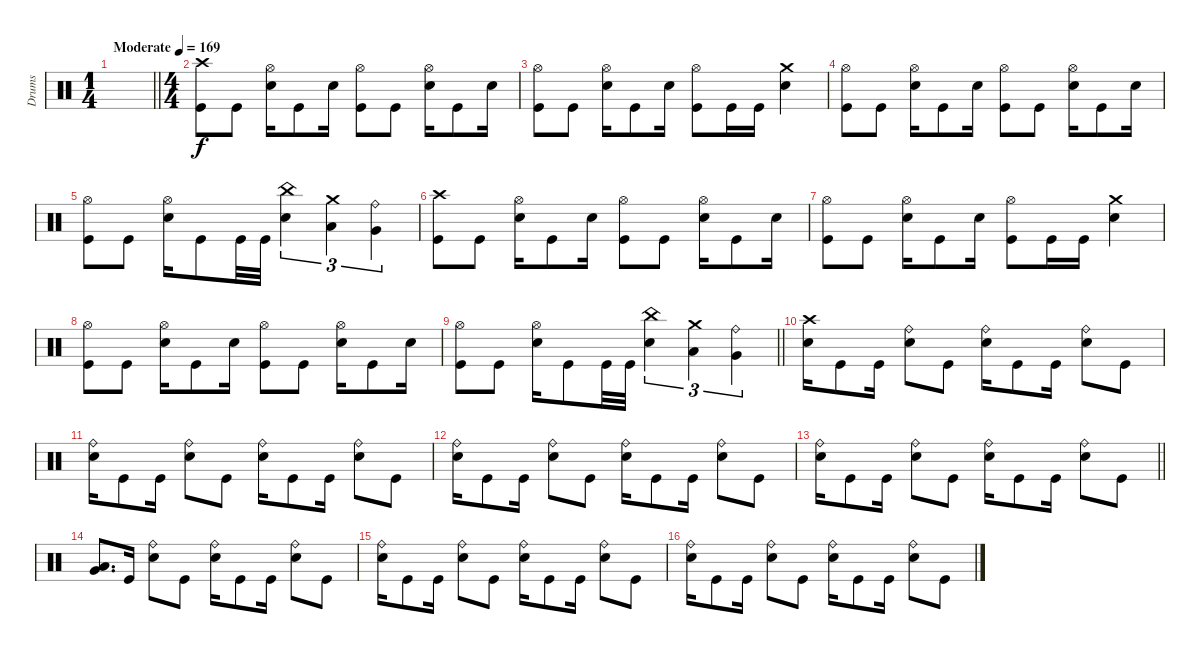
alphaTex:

\track ("Drums" "Drums") {instrument percussion}
\staff
\articulation defaults
\ts (1 4)
\tempo (169 "Moderate")
\clef neutral
\barLineRight lightlight
\ks c
|
\ts (4 4)
("Crash high (hit)" "Kick (hit)").8 "Kick (hit)".8 ("Hi-Hat (open)" "Electric Snare (hit)").16 "Kick (hit)".8 "Electric Snare (hit)".16 ("Hi-Hat (open)" "Kick (hit)").8 "Kick (hit)".8 ("Hi-Hat (open)" "Electric Snare (hit)").16 "Kick (hit)".8 "Electric Snare (hit)".16 |
("Hi-Hat (open)" "Kick (hit)").8 "Kick (hit)".8 ("Hi-Hat (open)" "Electric Snare (hit)").16 "Kick (hit)".8 "Electric Snare (hit)".16 ("Hi-Hat (open)" "Kick (hit)").8 "Kick (hit)".16 "Kick (hit)".16 ("Crash medium (hit)" "Electric Snare (hit)").4 |
("Hi-Hat (open)" "Kick (hit)").8 "Kick (hit)".8 ("Hi-Hat (open)" "Electric Snare (hit)").16 "Kick (hit)".8 "Electric Snare (hit)".16 ("Hi-Hat (open)" "Kick (hit)").8 "Kick (hit)".8 ("Hi-Hat (open)" "Electric Snare (hit)").16 "Kick (hit)".8 "Electric Snare (hit)".16 |
("Hi-Hat (open)" "Kick (hit)").8 "Kick (hit)".8 ("Hi-Hat (open)" "Electric Snare (hit)").16 "Kick (hit)".8 "Kick (hit)".32 "Kick (hit)".32 ("China (hit)" "Electric Snare (hit)").4{tu (3 2)} ("Crash medium (hit)" "Low Tom (hit)").4{tu (3 2)} ("Ride (bell)" "Very Low Tom (hit)").4{tu (3 2)} |
("Crash high (hit)" "Kick (hit)").8 "Kick (hit)".8 ("Hi-Hat (open)" "Electric Snare (hit)").16 "Kick (hit)".8 "Electric Snare (hit)".16 ("Hi-Hat (open)" "Kick (hit)").8 "Kick (hit)".8 ("Hi-Hat (open)" "Electric Snare (hit)").16 "Kick (hit)".8 "Electric Snare (hit)".16 |
("Hi-Hat (open)" "Kick (hit)").8 "Kick (hit)".8 ("Hi-Hat (open)" "Electric Snare (hit)").16 "Kick (hit)".8 "Electric Snare (hit)".16 ("Hi-Hat (open)" "Kick (hit)").8 "Kick (hit)".16 "Kick (hit)".16 ("Crash medium (hit)" "Electric Snare (hit)").4 |
("Hi-Hat (open)" "Kick (hit)").8 "Kick (hit)".8 ("Hi-Hat (open)" "Electric Snare (hit)").16 "Kick (hit)".8 "Electric Snare (hit)".16 ("Hi-Hat (open)" "Kick (hit)").8 "Kick (hit)".8 ("Hi-Hat (open)" "Electric Snare (hit)").16 "Kick (hit)".8 "Electric Snare (hit)".16 |
\barLineRight lightlight
("Hi-Hat (open)" "Kick (hit)").8 "Kick (hit)".8 ("Hi-Hat (open)" "Electric Snare (hit)").16 "Kick (hit)".8 "Kick (hit)".32 "Kick (hit)".32 ("China (hit)" "Electric Snare (hit)").4{tu (3 2)} ("Crash medium (hit)" "Low Tom (hit)").4{tu (3 2)} ("Ride (bell)" "Very Low Tom (hit)").4{tu (3 2)} |
("Crash high (hit)" "Electric Snare (hit)").16 "Kick (hit)".8 "Kick (hit)".16 ("Ride (bell)" "Electric Snare (hit)").8 "Kick (hit)".8 ("Ride (bell)" "Electric Snare (hit)").16 "Kick (hit)".8 "Kick (hit)".16 ("Ride (bell)" "Electric Snare (hit)").8 "Kick (hit)".8 |
("Ride (bell)" "Electric Snare (hit)").16 "Kick (hit)".8 "Kick (hit)".16 ("Ride (bell)" "Electric Snare (hit)").8 "Kick (hit)".8 ("Ride (bell)" "Electric Snare (hit)").16 "Kick (hit)".8 "Kick (hit)".16 ("Ride (bell)" "Electric Snare (hit)").8 "Kick (hit)".8 |
("Ride (bell)" "Electric Snare (hit)").16 "Kick (hit)".8 "Kick (hit)".16 ("Ride (bell)" "Electric Snare (hit)").8 "Kick (hit)".8 ("Ride (bell)" "Electric Snare (hit)").16 "Kick (hit)".8 "Kick (hit)".16 ("Ride (bell)" "Electric Snare (hit)").8 "Kick (hit)".8 |
\barLineRight lightlight
("Ride (bell)" "Electric Snare (hit)").16 "Kick (hit)".8 "Kick (hit)".16 ("Ride (bell)" "Electric Snare (hit)").8 "Kick (hit)".8 ("Ride (bell)" "Electric Snare (hit)").16 "Kick (hit)".8 "Kick (hit)".16 ("Ride (bell)" "Electric Snare (hit)").8 "Kick (hit)".8 |
("Very Low Tom (hit)" "Low Floor Tom (hit)").8{d} "Kick (hit)".16 ("Ride (bell)" "Electric Snare (hit)").8 "Kick (hit)".8 ("Ride (bell)" "Electric Snare (hit)").16 "Kick (hit)".8 "Kick (hit)".16 ("Ride (bell)" "Electric Snare (hit)").8 "Kick (hit)".8 |
("Ride (bell)" "Electric Snare (hit)").16 "Kick (hit)".8 "Kick (hit)".16 ("Ride (bell)" "Electric Snare (hit)").8 "Kick (hit)".8 ("Ride (bell)" "Electric Snare (hit)").16 "Kick (hit)".8 "Kick (hit)".16 ("Ride (bell)" "Electric Snare (hit)").8 "Kick (hit)".8 |
("Ride (bell)" "Electric Snare (hit)").16 "Kick (hit)".8 "Kick (hit)".16 ("Ride (bell)" "Electric Snare (hit)").8 "Kick (hit)".8 ("Ride (bell)" "Electric Snare (hit)").16 "Kick (hit)".8 "Kick (hit)".16 ("Ride (bell)" "Electric Snare (hit)").8 "Kick (hit)".8
